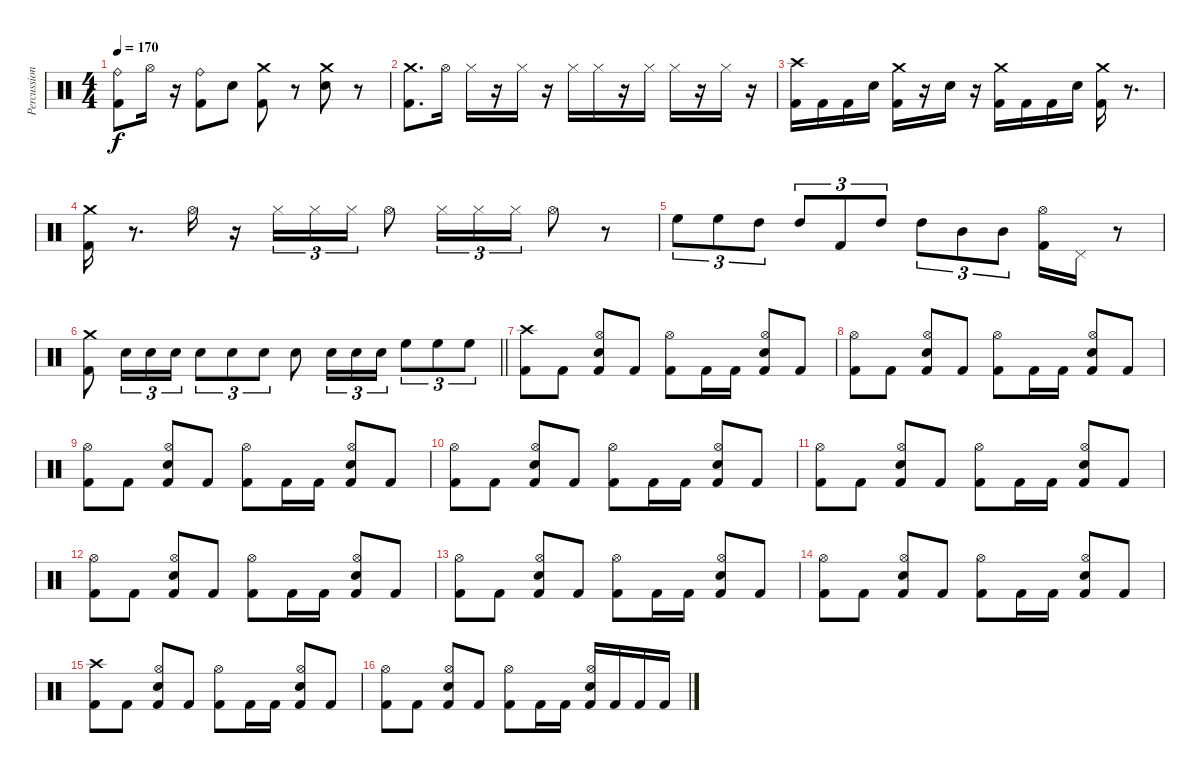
\track ("Percussion" "Percussion") {instrument percussion}
\staff {score}
\articulation defaults
\ts (4 4)
\tempo 170
\clef neutral
\ks c
("Ride (bell)" "Kick (hit) 2").8{dy f} "Hi-Hat (open)".16 r.16 ("Ride (bell)" "Kick (hit) 2").8 "Electric Snare (hit)".8 ("Crash medium (hit)" "Kick (hit) 2").8 r.8 ("Crash medium (hit)" "Electric Snare (hit)").8 r.8 |
("Crash medium (hit)" "Kick (hit) 2").8{d} "Hi-Hat (open)".16 "Hi-Hat (closed)".16 r.16 "Hi-Hat (closed)".16 r.16 "Hi-Hat (closed)".16 "Hi-Hat (closed)".16 r.16 "Hi-Hat (closed)".16 "Hi-Hat (closed)".16 r.16 "Hi-Hat (closed)".16 r.16 |
("Crash high (hit)" "Kick (hit) 2").16 "Kick (hit) 2".16 "Kick (hit) 2".16 "Electric Snare (hit)".16 ("Crash medium (hit)" "Kick (hit) 2").16 r.16 "Electric Snare (hit)".16 r.16 ("Kick (hit) 2" "Crash medium (hit)").16 "Kick (hit) 2".16 "Kick (hit) 2".16 "Electric Snare (hit)".16 ("Kick (hit) 2" "Crash medium (hit)").16 r.8{d} |
("Crash medium (hit)" "Kick (hit) 2").16 r.8{d} "Hi-Hat (open)".16 r.16 "Hi-Hat (closed)".16{tu (3 2)} "Hi-Hat (closed)".16{tu (3 2)} "Hi-Hat (closed)".16{tu (3 2)} "Hi-Hat (open)".8 "Hi-Hat (closed)".16{tu (3 2)} "Hi-Hat (closed)".16{tu (3 2)} "Hi-Hat (closed)".16{tu (3 2)} "Hi-Hat (open)".8 r.8 |
"High Floor Tom (hit)".8{tu (3 2)} "High Floor Tom (hit)".8{tu (3 2)} "High Tom (hit)".8{tu (3 2)} "High Tom (hit)".8{tu (3 2)} "Kick (hit) 2".8{tu (3 2)} "High Tom (hit)".8{tu (3 2)} "High Tom (hit)".8{tu (3 2)} "Mid Tom (hit)".8{tu (3 2)} "Mid Tom (hit)".8{tu (3 2)} ("Hi-Hat (open)" "Kick (hit) 2").16 "Pedal Hi-Hat (hit)".16 r.8 |
\barLineRight lightlight
("Crash medium (hit)" "Kick (hit) 2").8 "Snare (hit)".16{tu (3 2)} "Snare (hit)".16{tu (3 2)} "Electric Snare (hit)".16{tu (3 2)} "Electric Snare (hit)".8{tu (3 2)} "Electric Snare (hit)".8{tu (3 2)} "Electric Snare (hit)".8{tu (3 2)} "Electric Snare (hit)".8 "Electric Snare (hit)".16{tu (3 2)} "Electric Snare (hit)".16{tu (3 2)} "Snare (hit)".16{tu (3 2)} "High Floor Tom (hit)".8{tu (3 2)} "High Floor Tom (hit)".8{tu (3 2)} "High Floor Tom (hit)".8{tu (3 2)} |
\section ("" "")
("Kick (hit) 2" "Crash high (hit)").8 "Kick (hit) 2".8 ("Kick (hit) 2" "Electric Snare (hit)" "Hi-Hat (open)").8 "Kick (hit) 2".8 ("Kick (hit) 2" "Hi-Hat (open)").8 "Kick (hit) 2".16 "Kick (hit) 2".16 ("Kick (hit) 2" "Electric Snare (hit)" "Hi-Hat (open)").8 "Kick (hit) 2".8 |
("Kick (hit) 2" "Hi-Hat (open)").8 "Kick (hit) 2".8 ("Kick (hit) 2" "Electric Snare (hit)" "Hi-Hat (open)").8 "Kick (hit) 2".8 ("Kick (hit) 2" "Hi-Hat (open)").8 "Kick (hit) 2".16 "Kick (hit) 2".16 ("Kick (hit) 2" "Electric Snare (hit)" "Hi-Hat (open)").8 "Kick (hit) 2".8 |
("Kick (hit) 2" "Hi-Hat (open)").8 "Kick (hit) 2".8 ("Kick (hit) 2" "Electric Snare (hit)" "Hi-Hat (open)").8 "Kick (hit) 2".8 ("Kick (hit) 2" "Hi-Hat (open)").8 "Kick (hit) 2".16 "Kick (hit) 2".16 ("Kick (hit) 2" "Electric Snare (hit)" "Hi-Hat (open)").8 "Kick (hit) 2".8 |
("Kick (hit) 2" "Hi-Hat (open)").8 "Kick (hit) 2".8 ("Kick (hit) 2" "Electric Snare (hit)" "Hi-Hat (open)").8 "Kick (hit) 2".8 ("Kick (hit) 2" "Hi-Hat (open)").8 "Kick (hit) 2".16 "Kick (hit) 2".16 ("Kick (hit) 2" "Electric Snare (hit)" "Hi-Hat (open)").8 "Kick (hit) 2".8 |
("Kick (hit) 2" "Hi-Hat (open)").8 "Kick (hit) 2".8 ("Kick (hit) 2" "Electric Snare (hit)" "Hi-Hat (open)").8 "Kick (hit) 2".8 ("Kick (hit) 2" "Hi-Hat (open)").8 "Kick (hit) 2".16 "Kick (hit) 2".16 ("Kick (hit) 2" "Electric Snare (hit)" "Hi-Hat (open)").8 "Kick (hit) 2".8 |
("Kick (hit) 2" "Hi-Hat (open)").8 "Kick (hit) 2".8 ("Kick (hit) 2" "Electric Snare (hit)" "Hi-Hat (open)").8 "Kick (hit) 2".8 ("Kick (hit) 2" "Hi-Hat (open)").8 "Kick (hit) 2".16 "Kick (hit) 2".16 ("Kick (hit) 2" "Electric Snare (hit)" "Hi-Hat (open)").8 "Kick (hit) 2".8 |
("Kick (hit) 2" "Hi-Hat (open)").8 "Kick (hit) 2".8 ("Kick (hit) 2" "Electric Snare (hit)" "Hi-Hat (open)").8 "Kick (hit) 2".8 ("Kick (hit) 2" "Hi-Hat (open)").8 "Kick (hit) 2".16 "Kick (hit) 2".16 ("Kick (hit) 2" "Electric Snare (hit)" "Hi-Hat (open)").8 "Kick (hit) 2".8 |
("Kick (hit) 2" "Hi-Hat (open)").8 "Kick (hit) 2".8 ("Kick (hit) 2" "Electric Snare (hit)" "Hi-Hat (open)").8 "Kick (hit) 2".8 ("Kick (hit) 2" "Hi-Hat (open)").8 "Kick (hit) 2".16 "Kick (hit) 2".16 ("Kick (hit) 2" "Electric Snare (hit)" "Hi-Hat (open)").8 "Kick (hit) 2".8 |
("Kick (hit) 2" "Crash high (hit)").8 "Kick (hit) 2".8 ("Kick (hit) 2" "Electric Snare (hit)" "Hi-Hat (open)").8 "Kick (hit) 2".8 ("Kick (hit) 2" "Hi-Hat (open)").8 "Kick (hit) 2".16 "Kick (hit) 2".16 ("Kick (hit) 2" "Electric Snare (hit)" "Hi-Hat (open)").8 "Kick (hit) 2".8 |
("Kick (hit) 2" "Hi-Hat (open)").8 "Kick (hit) 2".8 ("Kick (hit) 2" "Electric Snare (hit)" "Hi-Hat (open)").8 "Kick (hit) 2".8 ("Kick (hit) 2" "Hi-Hat (open)").8 "Kick (hit) 2".16 "Kick (hit) 2".16 ("Kick (hit) 2" "Electric Snare (hit)" "Hi-Hat (open)").16 "Kick (hit) 2".16 "Kick (hit) 2".16 "Kick (hit) 2".16
